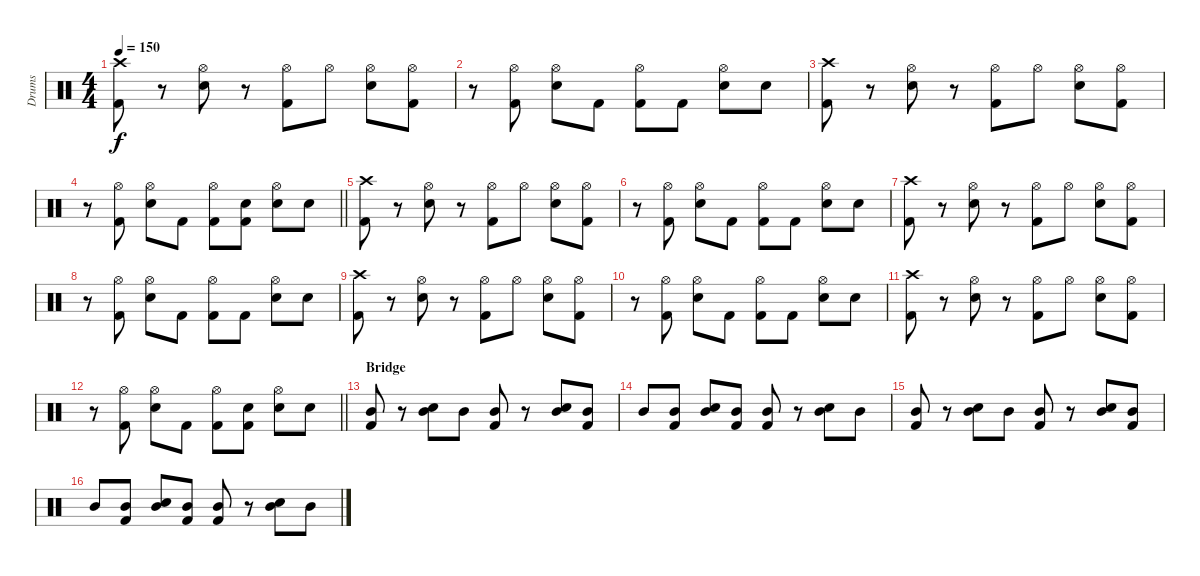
\track ("Drums" "Drums") {instrument percussion}
\staff {score}
\articulation defaults
\ts (4 4)
\tempo 150
\clef neutral
\ks c
("Crash high (hit)" "Kick (hit) 2").8{dy f} r.8 ("Snare (hit) 2" "Hi-Hat (open)").8 r.8 ("Hi-Hat (open)" "Kick (hit) 2").8 "Hi-Hat (open)".8 ("Snare (hit) 2" "Hi-Hat (open)").8 ("Hi-Hat (open)" "Kick (hit) 2").8 |
r.8 ("Hi-Hat (open)" "Kick (hit) 2").8 ("Snare (hit) 2" "Hi-Hat (open)").8 "Kick (hit) 2".8 ("Hi-Hat (open)" "Kick (hit) 2").8 "Kick (hit) 2".8 ("Snare (hit) 2" "Hi-Hat (open)").8 "Snare (hit) 2".8 |
("Crash high (hit)" "Kick (hit) 2").8 r.8 ("Snare (hit) 2" "Hi-Hat (open)").8 r.8 ("Hi-Hat (open)" "Kick (hit) 2").8 "Hi-Hat (open)".8 ("Snare (hit) 2" "Hi-Hat (open)").8 ("Hi-Hat (open)" "Kick (hit) 2").8 |
\barLineRight lightlight
r.8 ("Hi-Hat (open)" "Kick (hit) 2").8 ("Snare (hit) 2" "Hi-Hat (open)").8 "Kick (hit) 2".8 ("Hi-Hat (open)" "Kick (hit) 2").8 ("Snare (hit) 2" "Kick (hit) 2").8 ("Snare (hit) 2" "Hi-Hat (open)").8 "Snare (hit) 2".8 |
("Crash high (hit)" "Kick (hit) 2").8 r.8 ("Snare (hit) 2" "Hi-Hat (open)").8 r.8 ("Hi-Hat (open)" "Kick (hit) 2").8 "Hi-Hat (open)".8 ("Snare (hit) 2" "Hi-Hat (open)").8 ("Hi-Hat (open)" "Kick (hit) 2").8 |
r.8 ("Hi-Hat (open)" "Kick (hit) 2").8 ("Snare (hit) 2" "Hi-Hat (open)").8 "Kick (hit) 2".8 ("Hi-Hat (open)" "Kick (hit) 2").8 "Kick (hit) 2".8 ("Snare (hit) 2" "Hi-Hat (open)").8 "Snare (hit) 2".8 |
("Crash high (hit)" "Kick (hit) 2").8 r.8 ("Snare (hit) 2" "Hi-Hat (open)").8 r.8 ("Hi-Hat (open)" "Kick (hit) 2").8 "Hi-Hat (open)".8 ("Snare (hit) 2" "Hi-Hat (open)").8 ("Hi-Hat (open)" "Kick (hit) 2").8 |
r.8 ("Hi-Hat (open)" "Kick (hit) 2").8 ("Snare (hit) 2" "Hi-Hat (open)").8 "Kick (hit) 2".8 ("Hi-Hat (open)" "Kick (hit) 2").8 "Kick (hit) 2".8 ("Snare (hit) 2" "Hi-Hat (open)").8 "Snare (hit) 2".8 |
("Crash high (hit)" "Kick (hit) 2").8 r.8 ("Snare (hit) 2" "Hi-Hat (open)").8 r.8 ("Hi-Hat (open)" "Kick (hit) 2").8 "Hi-Hat (open)".8 ("Snare (hit) 2" "Hi-Hat (open)").8 ("Hi-Hat (open)" "Kick (hit) 2").8 |
r.8 ("Hi-Hat (open)" "Kick (hit) 2").8 ("Snare (hit) 2" "Hi-Hat (open)").8 "Kick (hit) 2".8 ("Hi-Hat (open)" "Kick (hit) 2").8 "Kick (hit) 2".8 ("Snare (hit) 2" "Hi-Hat (open)").8 "Snare (hit) 2".8 |
("Crash high (hit)" "Kick (hit) 2").8 r.8 ("Snare (hit) 2" "Hi-Hat (open)").8 r.8 ("Hi-Hat (open)" "Kick (hit) 2").8 "Hi-Hat (open)".8 ("Snare (hit) 2" "Hi-Hat (open)").8 ("Hi-Hat (open)" "Kick (hit) 2").8 |
\barLineRight lightlight
r.8 ("Hi-Hat (open)" "Kick (hit) 2").8 ("Snare (hit) 2" "Hi-Hat (open)").8 "Kick (hit) 2".8 ("Hi-Hat (open)" "Kick (hit) 2").8 ("Snare (hit) 2" "Kick (hit) 2").8 ("Snare (hit) 2" "Hi-Hat (open)").8 "Snare (hit) 2".8 |
\section ("" "Bridge")
("Mid Tom (hit)" "Kick (hit) 2").8 r.8 ("Snare (hit) 2" "Mid Tom (hit)").8 "Mid Tom (hit)".8 ("Mid Tom (hit)" "Kick (hit) 2").8 r.8 ("Snare (hit) 2" "Mid Tom (hit)").8 ("Mid Tom (hit)" "Kick (hit) 2").8 |
"Mid Tom (hit)".8 ("Mid Tom (hit)" "Kick (hit) 2").8 ("Snare (hit) 2" "Mid Tom (hit)").8 ("Mid Tom (hit)" "Kick (hit) 2").8 ("Mid Tom (hit)" "Kick (hit) 2").8 r.8 ("Snare (hit) 2" "Mid Tom (hit)").8 "Mid Tom (hit)".8 |
("Mid Tom (hit)" "Kick (hit) 2").8 r.8 ("Snare (hit) 2" "Mid Tom (hit)").8 "Mid Tom (hit)".8 ("Mid Tom (hit)" "Kick (hit) 2").8 r.8 ("Snare (hit) 2" "Mid Tom (hit)").8 ("Mid Tom (hit)" "Kick (hit) 2").8 |
"Mid Tom (hit)".8 ("Mid Tom (hit)" "Kick (hit) 2").8 ("Snare (hit) 2" "Mid Tom (hit)").8 ("Mid Tom (hit)" "Kick (hit) 2").8 ("Mid Tom (hit)" "Kick (hit) 2").8 r.8 ("Snare (hit) 2" "Mid Tom (hit)").8 "Mid Tom (hit)".8
